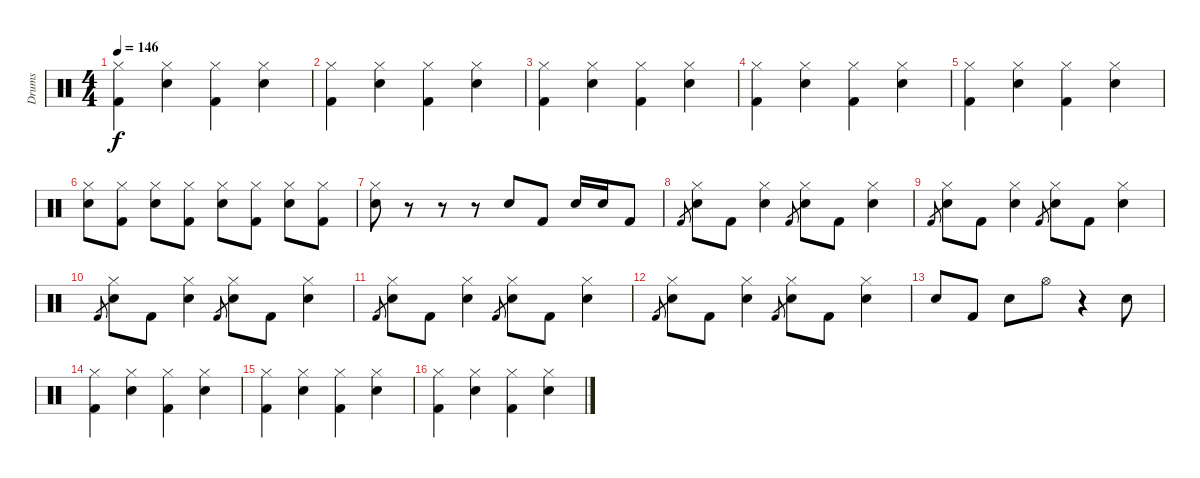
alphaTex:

\track ("Drums" "Drums") {instrument percussion}
\staff {score}
\articulation defaults
\ts (4 4)
\tempo 146
\clef neutral
\ks c
("Hi-Hat (closed)" "Kick (hit) 2").4{dy f} ("Hi-Hat (closed)" "Snare (hit) 2").4 ("Hi-Hat (closed)" "Kick (hit) 2").4 ("Hi-Hat (closed)" "Snare (hit) 2").4 |
("Hi-Hat (closed)" "Kick (hit) 2").4 ("Hi-Hat (closed)" "Snare (hit) 2").4 ("Hi-Hat (closed)" "Kick (hit) 2").4 ("Hi-Hat (closed)" "Snare (hit) 2").4 |
("Hi-Hat (closed)" "Kick (hit) 2").4 ("Hi-Hat (closed)" "Snare (hit) 2").4 ("Hi-Hat (closed)" "Kick (hit) 2").4 ("Hi-Hat (closed)" "Snare (hit) 2").4 |
("Hi-Hat (closed)" "Kick (hit) 2").4 ("Hi-Hat (closed)" "Snare (hit) 2").4 ("Hi-Hat (closed)" "Kick (hit) 2").4 ("Hi-Hat (closed)" "Snare (hit) 2").4 |
("Hi-Hat (closed)" "Kick (hit) 2").4 ("Hi-Hat (closed)" "Snare (hit) 2").4 ("Hi-Hat (closed)" "Kick (hit) 2").4 ("Hi-Hat (closed)" "Snare (hit) 2").4 |
("Hi-Hat (closed)" "Snare (hit) 2").8 ("Hi-Hat (closed)" "Kick (hit) 2").8 ("Hi-Hat (closed)" "Snare (hit) 2").8 ("Hi-Hat (closed)" "Kick (hit) 2").8 ("Hi-Hat (closed)" "Snare (hit) 2").8 ("Hi-Hat (closed)" "Kick (hit) 2").8 ("Hi-Hat (closed)" "Snare (hit) 2").8 ("Hi-Hat (closed)" "Kick (hit) 2").8 |
("Hi-Hat (closed)" "Snare (hit) 2").8 r.8 r.8 r.8 "Snare (hit) 2".8 "Kick (hit) 2".8 "Snare (hit) 2".16 "Snare (hit) 2".16 "Kick (hit) 2".8 |
"Kick (hit) 2".8{gr} ("Hi-Hat (closed)" "Snare (hit) 2").8 "Kick (hit) 2".8 ("Hi-Hat (closed)" "Snare (hit) 2").4 "Kick (hit) 2".8{gr} ("Hi-Hat (closed)" "Snare (hit) 2").8 "Kick (hit) 2".8 ("Hi-Hat (closed)" "Snare (hit) 2").4 |
"Kick (hit) 2".8{gr} ("Hi-Hat (closed)" "Snare (hit) 2").8 "Kick (hit) 2".8 ("Hi-Hat (closed)" "Snare (hit) 2").4 "Kick (hit) 2".8{gr} ("Hi-Hat (closed)" "Snare (hit) 2").8 "Kick (hit) 2".8 ("Hi-Hat (closed)" "Snare (hit) 2").4 |
"Kick (hit) 2".8{gr} ("Hi-Hat (closed)" "Snare (hit) 2").8 "Kick (hit) 2".8 ("Hi-Hat (closed)" "Snare (hit) 2").4 "Kick (hit) 2".8{gr} ("Hi-Hat (closed)" "Snare (hit) 2").8 "Kick (hit) 2".8 ("Hi-Hat (closed)" "Snare (hit) 2").4 |
"Kick (hit) 2".8{gr} ("Hi-Hat (closed)" "Snare (hit) 2").8 "Kick (hit) 2".8 ("Hi-Hat (closed)" "Snare (hit) 2").4 "Kick (hit) 2".8{gr} ("Hi-Hat (closed)" "Snare (hit) 2").8 "Kick (hit) 2".8 ("Hi-Hat (closed)" "Snare (hit) 2").4 |
"Kick (hit) 2".8{gr} ("Hi-Hat (closed)" "Snare (hit) 2").8 "Kick (hit) 2".8 ("Hi-Hat (closed)" "Snare (hit) 2").4 "Kick (hit) 2".8{gr} ("Hi-Hat (closed)" "Snare (hit) 2").8 "Kick (hit) 2".8 ("Hi-Hat (closed)" "Snare (hit) 2").4 |
"Snare (hit) 2".8 "Kick (hit) 2".8 "Snare (hit) 2".8 "Hi-Hat (open)".8 r.4 "Snare (hit) 2".8 |
("Hi-Hat (closed)" "Kick (hit) 2").4 ("Hi-Hat (closed)" "Snare (hit) 2").4 ("Hi-Hat (closed)" "Kick (hit) 2").4 ("Hi-Hat (closed)" "Snare (hit) 2").4 |
("Hi-Hat (closed)" "Kick (hit) 2").4 ("Hi-Hat (closed)" "Snare (hit) 2").4 ("Hi-Hat (closed)" "Kick (hit) 2").4 ("Hi-Hat (closed)" "Snare (hit) 2").4 |
("Hi-Hat (closed)" "Kick (hit) 2").4 ("Hi-Hat (closed)" "Snare (hit) 2").4 ("Hi-Hat (closed)" "Kick (hit) 2").4 ("Hi-Hat (closed)" "Snare (hit) 2").4
